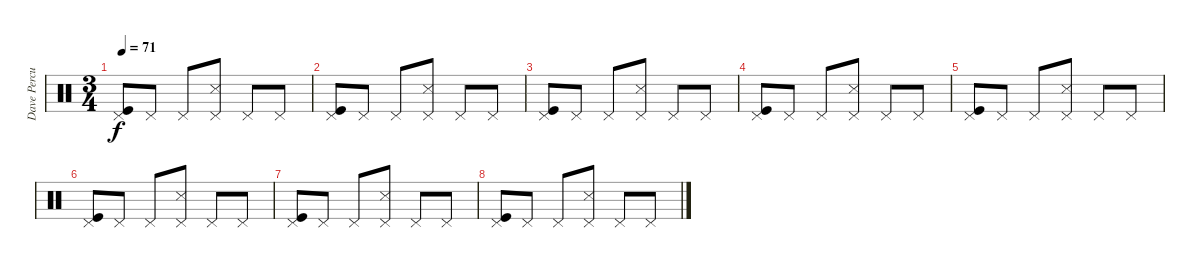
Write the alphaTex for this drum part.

\track ("Dave Percussions" "Dave Percu") {instrument percussion}
\staff {score}
\articulation defaults
\ts (3 4)
\tempo 71
\clef neutral
\ks c
("Pedal Hi-Hat (hit)" "Kick (hit)").8{dy f} "Pedal Hi-Hat (hit)".8 "Pedal Hi-Hat (hit)".8 ("Pedal Hi-Hat (hit)" "Snare (side stick) 3").8 "Pedal Hi-Hat (hit)".8 "Pedal Hi-Hat (hit)".8 |
("Pedal Hi-Hat (hit)" "Kick (hit)").8 "Pedal Hi-Hat (hit)".8 "Pedal Hi-Hat (hit)".8 ("Pedal Hi-Hat (hit)" "Snare (side stick) 3").8 "Pedal Hi-Hat (hit)".8 "Pedal Hi-Hat (hit)".8 |
("Pedal Hi-Hat (hit)" "Kick (hit)").8 "Pedal Hi-Hat (hit)".8 "Pedal Hi-Hat (hit)".8 ("Pedal Hi-Hat (hit)" "Snare (side stick) 3").8 "Pedal Hi-Hat (hit)".8 "Pedal Hi-Hat (hit)".8 |
("Pedal Hi-Hat (hit)" "Kick (hit)").8 "Pedal Hi-Hat (hit)".8 "Pedal Hi-Hat (hit)".8 ("Pedal Hi-Hat (hit)" "Snare (side stick) 3").8 "Pedal Hi-Hat (hit)".8 "Pedal Hi-Hat (hit)".8 |
("Pedal Hi-Hat (hit)" "Kick (hit)").8 "Pedal Hi-Hat (hit)".8 "Pedal Hi-Hat (hit)".8 ("Pedal Hi-Hat (hit)" "Snare (side stick) 3").8 "Pedal Hi-Hat (hit)".8 "Pedal Hi-Hat (hit)".8 |
("Pedal Hi-Hat (hit)" "Kick (hit)").8 "Pedal Hi-Hat (hit)".8 "Pedal Hi-Hat (hit)".8 ("Pedal Hi-Hat (hit)" "Snare (side stick) 3").8 "Pedal Hi-Hat (hit)".8 "Pedal Hi-Hat (hit)".8 |
("Pedal Hi-Hat (hit)" "Kick (hit)").8 "Pedal Hi-Hat (hit)".8 "Pedal Hi-Hat (hit)".8 ("Pedal Hi-Hat (hit)" "Snare (side stick) 3").8 "Pedal Hi-Hat (hit)".8 "Pedal Hi-Hat (hit)".8 |
("Pedal Hi-Hat (hit)" "Kick (hit)").8 "Pedal Hi-Hat (hit)".8 "Pedal Hi-Hat (hit)".8 ("Pedal Hi-Hat (hit)" "Snare (side stick) 3").8 "Pedal Hi-Hat (hit)".8 "Pedal Hi-Hat (hit)".8
